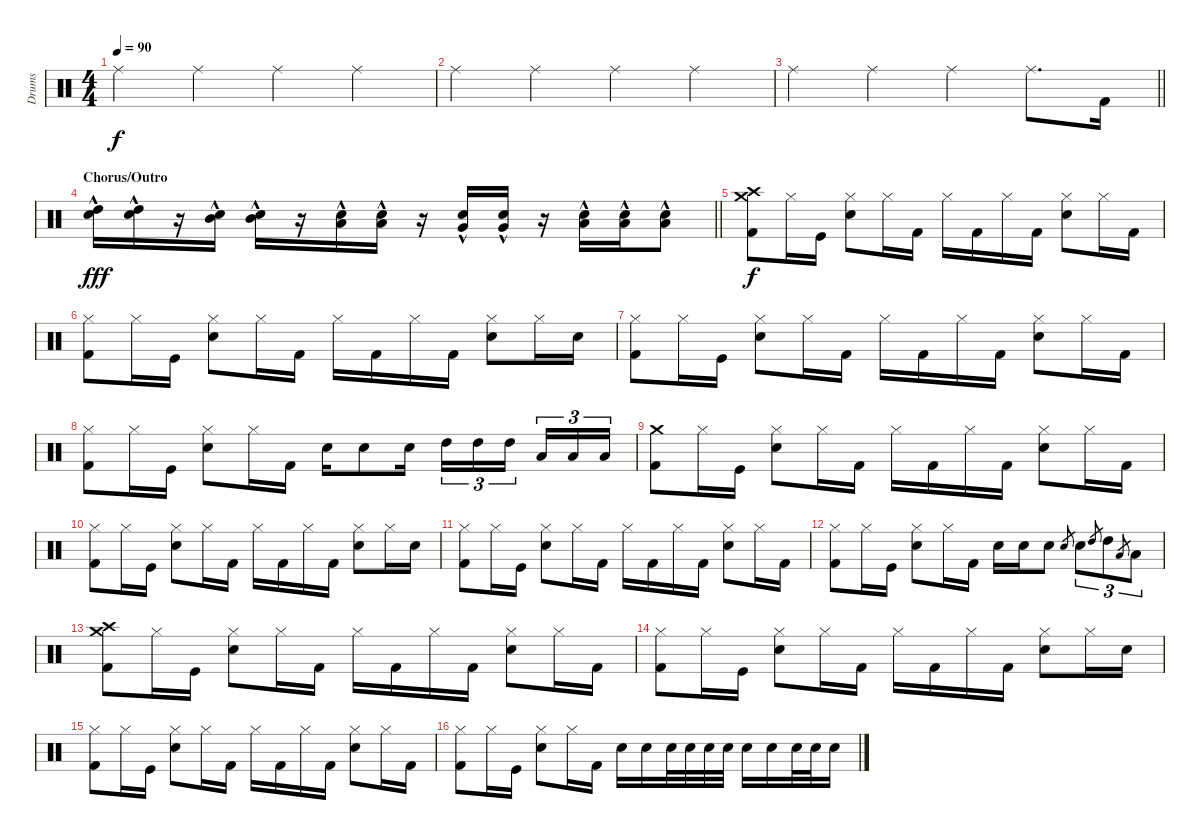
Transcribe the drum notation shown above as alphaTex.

\track ("Drums" "Drums") {instrument percussion}
\staff {score}
\articulation defaults
\ts (4 4)
\tempo 90
\clef neutral
\ks c "Ride (middle)".4{dy f} "Ride (middle)".4 "Ride (middle)".4 "Ride (middle)".4
|
"Ride (middle)".4 "Ride (middle)".4 "Ride (middle)".4 "Ride (middle)".4 |
\barLineRight lightlight "Ride (middle)".4 "Ride (middle)".4 "Ride (middle)".4 "Ride (middle)".8{d} "Kick (hit) 2".16
|
\section ("" "Chorus/Outro")
\barLineRight lightlight
("High Tom (hit)"{hac} "Snare (hit) 2").16{dy fff} ("High Tom (hit)"{hac} "Snare (hit) 2").16 r.16 ("Mid Tom (hit)"{hac} "Snare (hit) 2").16 ("Mid Tom (hit)"{hac} "Snare (hit) 2").16 r.16 ("Low Tom (hit)"{hac} "Snare (hit) 2").16 ("Low Tom (hit)"{hac} "Snare (hit) 2").16 r.16 ("Very Low Tom (hit)"{hac} "Snare (hit) 2").16 ("Very Low Tom (hit)"{hac} "Snare (hit) 2").16 r.16 ("Low Floor Tom (hit)"{hac} "Snare (hit) 2").16 ("Low Floor Tom (hit)"{hac} "Snare (hit) 2").16 ("Low Floor Tom (hit)"{hac} "Snare (hit) 2").8 |
("Crash medium (hit)" "Crash high (hit)" "Kick (hit) 2").8{dy f} "Hi-Hat (closed)".16 "Kick (hit)".16 ("Hi-Hat (closed)" "Snare (hit) 2").8 "Hi-Hat (closed)".16 "Kick (hit) 2".16 "Hi-Hat (closed)".16 "Kick (hit) 2".16 "Hi-Hat (closed)".16 "Kick (hit) 2".16 ("Hi-Hat (closed)" "Snare (hit) 2").8 "Hi-Hat (closed)".16 "Kick (hit) 2".16 |
("Hi-Hat (closed)" "Kick (hit) 2").8 "Hi-Hat (closed)".16 "Kick (hit)".16 ("Hi-Hat (closed)" "Snare (hit) 2").8 "Hi-Hat (closed)".16 "Kick (hit) 2".16 "Hi-Hat (closed)".16 "Kick (hit) 2".16 "Hi-Hat (closed)".16 "Kick (hit) 2".16 ("Hi-Hat (closed)" "Snare (hit) 2").8 "Hi-Hat (closed)".16 "Snare (hit) 2".16 |
("Hi-Hat (closed)" "Kick (hit) 2").8 "Hi-Hat (closed)".16 "Kick (hit)".16 ("Hi-Hat (closed)" "Snare (hit) 2").8 "Hi-Hat (closed)".16 "Kick (hit) 2".16 "Hi-Hat (closed)".16 "Kick (hit) 2".16 "Hi-Hat (closed)".16 "Kick (hit) 2".16 ("Hi-Hat (closed)" "Snare (hit) 2").8 "Hi-Hat (closed)".16 "Kick (hit) 2".16 |
("Hi-Hat (closed)" "Kick (hit) 2").8 "Hi-Hat (closed)".16 "Kick (hit)".16 ("Hi-Hat (closed)" "Snare (hit) 2").8 "Hi-Hat (closed)".16 "Kick (hit) 2".16 "Snare (hit) 2".16 "Snare (hit) 2".8 "Snare (hit) 2".16 "High Tom (hit)".16{tu (3 2)} "High Tom (hit)".16{tu (3 2)} "High Tom (hit)".16{tu (3 2) beam splitsecondary} "Low Tom (hit)".16{tu (3 2)} "Low Tom (hit)".16{tu (3 2)} "Low Tom (hit)".16{tu (3 2)} |
("Crash medium (hit)" "Kick (hit) 2").8 "Hi-Hat (closed)".16 "Kick (hit)".16 ("Hi-Hat (closed)" "Snare (hit) 2").8 "Hi-Hat (closed)".16 "Kick (hit) 2".16 "Hi-Hat (closed)".16 "Kick (hit) 2".16 "Hi-Hat (closed)".16 "Kick (hit) 2".16 ("Hi-Hat (closed)" "Snare (hit) 2").8 "Hi-Hat (closed)".16 "Kick (hit) 2".16 |
("Hi-Hat (closed)" "Kick (hit) 2").8 "Hi-Hat (closed)".16 "Kick (hit)".16 ("Hi-Hat (closed)" "Snare (hit) 2").8 "Hi-Hat (closed)".16 "Kick (hit) 2".16 "Hi-Hat (closed)".16 "Kick (hit) 2".16 "Hi-Hat (closed)".16 "Kick (hit) 2".16 ("Hi-Hat (closed)" "Snare (hit) 2").8 "Hi-Hat (closed)".16 "Snare (hit) 2".16 |
("Hi-Hat (closed)" "Kick (hit) 2").8 "Hi-Hat (closed)".16 "Kick (hit)".16 ("Hi-Hat (closed)" "Snare (hit) 2").8 "Hi-Hat (closed)".16 "Kick (hit) 2".16 "Hi-Hat (closed)".16 "Kick (hit) 2".16 "Hi-Hat (closed)".16 "Kick (hit) 2".16 ("Hi-Hat (closed)" "Snare (hit) 2").8 "Hi-Hat (closed)".16 "Kick (hit) 2".16 |
("Hi-Hat (closed)" "Kick (hit) 2").8 "Hi-Hat (closed)".16 "Kick (hit)".16 ("Hi-Hat (closed)" "Snare (hit) 2").8 "Hi-Hat (closed)".16 "Kick (hit) 2".16 "Snare (hit) 2".16 "Snare (hit) 2".16 "Snare (hit) 2".8 "Snare (hit) 2".8{gr} "Snare (hit) 2".8{tu (3 2)} "High Tom (hit)".8{gr} "High Tom (hit)".8{tu (3 2)} "Low Tom (hit)".8{gr} "Low Tom (hit)".8{tu (3 2)} |
("Crash medium (hit)" "Crash high (hit)" "Kick (hit) 2").8 "Hi-Hat (closed)".16 "Kick (hit)".16 ("Hi-Hat (closed)" "Snare (hit) 2").8 "Hi-Hat (closed)".16 "Kick (hit) 2".16 "Hi-Hat (closed)".16 "Kick (hit) 2".16 "Hi-Hat (closed)".16 "Kick (hit) 2".16 ("Hi-Hat (closed)" "Snare (hit) 2").8 "Hi-Hat (closed)".16 "Kick (hit) 2".16 |
("Hi-Hat (closed)" "Kick (hit) 2").8 "Hi-Hat (closed)".16 "Kick (hit)".16 ("Hi-Hat (closed)" "Snare (hit) 2").8 "Hi-Hat (closed)".16 "Kick (hit) 2".16 "Hi-Hat (closed)".16 "Kick (hit) 2".16 "Hi-Hat (closed)".16 "Kick (hit) 2".16 ("Hi-Hat (closed)" "Snare (hit) 2").8 "Hi-Hat (closed)".16 "Snare (hit) 2".16 |
("Hi-Hat (closed)" "Kick (hit) 2").8 "Hi-Hat (closed)".16 "Kick (hit)".16 ("Hi-Hat (closed)" "Snare (hit) 2").8 "Hi-Hat (closed)".16 "Kick (hit) 2".16 "Hi-Hat (closed)".16 "Kick (hit) 2".16 "Hi-Hat (closed)".16 "Kick (hit) 2".16 ("Hi-Hat (closed)" "Snare (hit) 2").8 "Hi-Hat (closed)".16 "Kick (hit) 2".16 |
("Hi-Hat (closed)" "Kick (hit) 2").8 "Hi-Hat (closed)".16 "Kick (hit)".16 ("Hi-Hat (closed)" "Snare (hit) 2").8 "Hi-Hat (closed)".16 "Kick (hit) 2".16 "Snare (hit) 2".16 "Snare (hit) 2".16 "Snare (hit) 2".32 "Snare (hit) 2".32 "Snare (hit) 2".32 "Snare (hit) 2".32 "Snare (hit) 2".16 "Snare (hit) 2".16 "Snare (hit) 2".32 "Snare (hit) 2".32 "Snare (hit) 2".16
